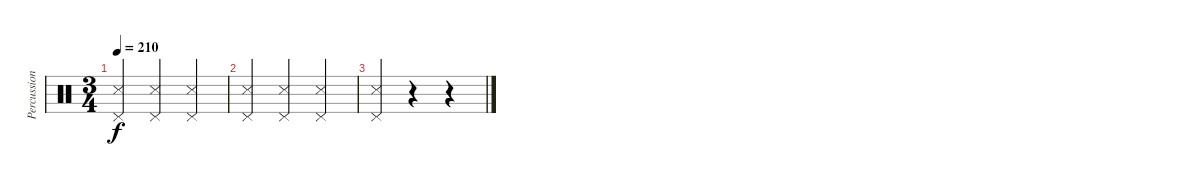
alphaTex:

\track ("Percussion" "Percussion") {instrument percussion}
\staff
\articulation defaults
\ts (3 4)
\tempo 210
\clef neutral
\ks c
("Snare (side stick) 3" "Pedal Hi-Hat (hit)").4{dy f} ("Snare (side stick) 3" "Pedal Hi-Hat (hit)").4 ("Snare (side stick) 3" "Pedal Hi-Hat (hit)").4 |
("Snare (side stick) 3" "Pedal Hi-Hat (hit)").4 ("Snare (side stick) 3" "Pedal Hi-Hat (hit)").4 ("Snare (side stick) 3" "Pedal Hi-Hat (hit)").4 |
("Snare (side stick) 3" "Pedal Hi-Hat (hit)").4 r.4 r.4
